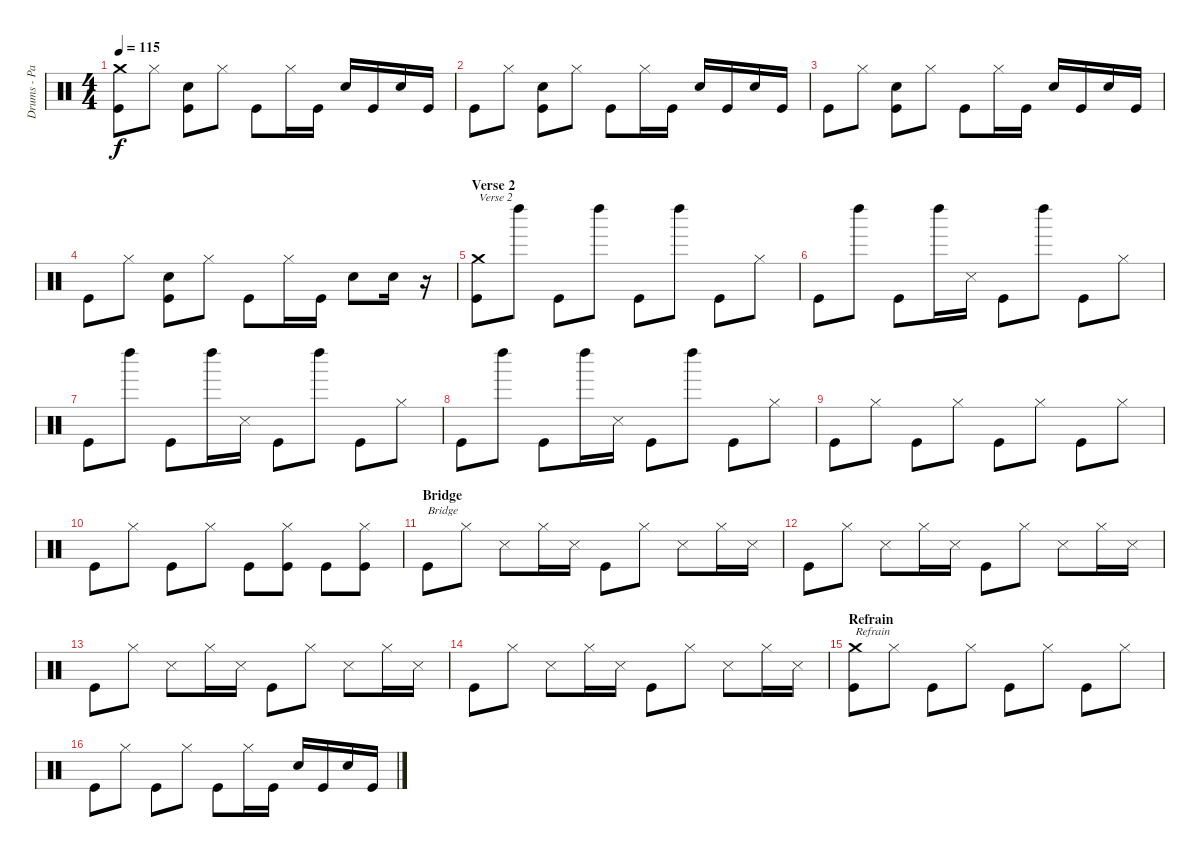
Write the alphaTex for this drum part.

\track ("Drums - Paul Thomson" "Drums - Pa") {instrument percussion}
\staff {score}
\articulation defaults
\ts (4 4)
\tempo 115
\clef neutral
\ks c
("Kick (hit)" "Crash medium (hit)").8{dy f} "Hi-Hat (closed)".8 ("Kick (hit)" "Electric Snare (hit)").8 "Hi-Hat (closed)".8 "Kick (hit)".8 "Hi-Hat (closed)".16 "Kick (hit)".16 "Electric Snare (hit)".16 "Kick (hit)".16 "Electric Snare (hit)".16 "Kick (hit)".16 |
"Kick (hit)".8 "Hi-Hat (closed)".8 ("Kick (hit)" "Electric Snare (hit)").8 "Hi-Hat (closed)".8 "Kick (hit)".8 "Hi-Hat (closed)".16 "Kick (hit)".16 "Electric Snare (hit)".16 "Kick (hit)".16 "Electric Snare (hit)".16 "Kick (hit)".16 |
"Kick (hit)".8 "Hi-Hat (closed)".8 ("Kick (hit)" "Electric Snare (hit)").8 "Hi-Hat (closed)".8 "Kick (hit)".8 "Hi-Hat (closed)".16 "Kick (hit)".16 "Electric Snare (hit)".16 "Kick (hit)".16 "Electric Snare (hit)".16 "Kick (hit)".16 |
"Kick (hit)".8 "Hi-Hat (closed)".8 ("Kick (hit)" "Electric Snare (hit)").8 "Hi-Hat (closed)".8 "Kick (hit)".8 "Hi-Hat (closed)".16 "Kick (hit)".16 "Electric Snare (hit)".8 "Electric Snare (hit)".16 r.16 |
\section ("" "Verse 2")
("Kick (hit)" "Crash medium (hit)").8{txt "Verse 2"} "Left Maraca (hit)".8 "Kick (hit)".8 "Left Maraca (hit)".8 "Kick (hit)".8 "Left Maraca (hit)".8 "Kick (hit)".8 "Hi-Hat (closed)".8 |
"Kick (hit)".8 "Left Maraca (hit)".8 "Kick (hit)".8 "Left Maraca (hit)".16 "Snare (side stick) 3".16 "Kick (hit)".8 "Left Maraca (hit)".8 "Kick (hit)".8 "Hi-Hat (closed)".8 |
"Kick (hit)".8 "Left Maraca (hit)".8 "Kick (hit)".8 "Left Maraca (hit)".16 "Snare (side stick) 3".16 "Kick (hit)".8 "Left Maraca (hit)".8 "Kick (hit)".8 "Hi-Hat (closed)".8 |
"Kick (hit)".8 "Left Maraca (hit)".8 "Kick (hit)".8 "Left Maraca (hit)".16 "Snare (side stick) 3".16 "Kick (hit)".8 "Left Maraca (hit)".8 "Kick (hit)".8 "Hi-Hat (closed)".8 |
"Kick (hit)".8 "Hi-Hat (closed)".8 "Kick (hit)".8 "Hi-Hat (closed)".8 "Kick (hit)".8 "Hi-Hat (closed)".8 "Kick (hit)".8 "Hi-Hat (closed)".8 |
"Kick (hit)".8 "Hi-Hat (closed)".8 "Kick (hit)".8 "Hi-Hat (closed)".8 "Kick (hit)".8 ("Kick (hit)" "Hi-Hat (closed)").8 "Kick (hit)".8 ("Kick (hit)" "Hi-Hat (closed)").8 |
\section ("" "Bridge")
"Kick (hit)".8{txt "Bridge"} "Hi-Hat (closed)".8 "Snare (side stick) 3".8 "Hi-Hat (closed)".16 "Snare (side stick) 3".16 "Kick (hit)".8 "Hi-Hat (closed)".8 "Snare (side stick) 3".8 "Hi-Hat (closed)".16 "Snare (side stick) 3".16 |
"Kick (hit)".8 "Hi-Hat (closed)".8 "Snare (side stick) 3".8 "Hi-Hat (closed)".16 "Snare (side stick) 3".16 "Kick (hit)".8 "Hi-Hat (closed)".8 "Snare (side stick) 3".8 "Hi-Hat (closed)".16 "Snare (side stick) 3".16 |
"Kick (hit)".8 "Hi-Hat (closed)".8 "Snare (side stick) 3".8 "Hi-Hat (closed)".16 "Snare (side stick) 3".16 "Kick (hit)".8 "Hi-Hat (closed)".8 "Snare (side stick) 3".8 "Hi-Hat (closed)".16 "Snare (side stick) 3".16 |
"Kick (hit)".8 "Hi-Hat (closed)".8 "Snare (side stick) 3".8 "Hi-Hat (closed)".16 "Snare (side stick) 3".16 "Kick (hit)".8 "Hi-Hat (closed)".8 "Snare (side stick) 3".8 "Hi-Hat (closed)".16 "Snare (side stick) 3".16 |
\section ("" "Refrain")
("Kick (hit)" "Crash medium (hit)").8{txt "Refrain"} "Hi-Hat (closed)".8 "Kick (hit)".8 "Hi-Hat (closed)".8 "Kick (hit)".8 "Hi-Hat (closed)".8 "Kick (hit)".8 "Hi-Hat (closed)".8 |
"Kick (hit)".8 "Hi-Hat (closed)".8 "Kick (hit)".8 "Hi-Hat (closed)".8 "Kick (hit)".8 "Hi-Hat (closed)".16 "Kick (hit)".16 "Electric Snare (hit)".16 "Kick (hit)".16 "Electric Snare (hit)".16 "Kick (hit)".16
